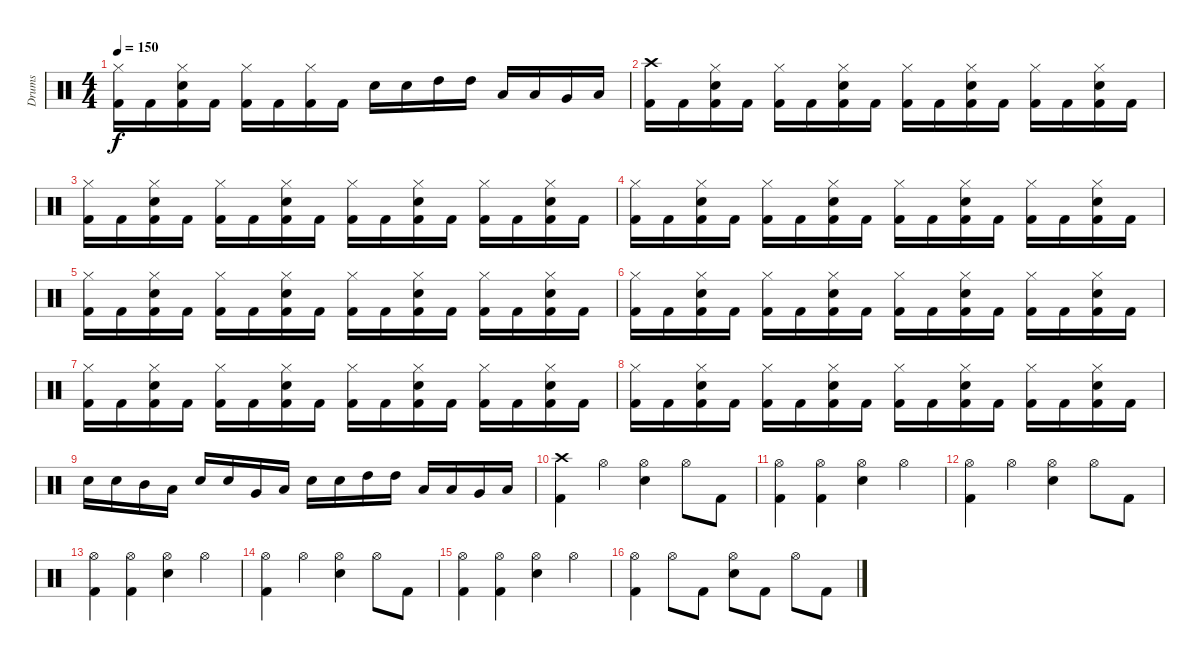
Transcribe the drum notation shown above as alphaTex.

\track ("Drums" "Drums") {instrument percussion}
\staff {score}
\articulation defaults
\ts (4 4)
\tempo 150
\clef neutral
\ks c
("Hi-Hat (closed)" "Kick (hit) 2").16{dy f} "Kick (hit) 2".16 ("Hi-Hat (closed)" "Electric Snare (hit)" "Kick (hit) 2").16 "Kick (hit) 2".16 ("Hi-Hat (closed)" "Kick (hit) 2").16 "Kick (hit) 2".16 ("Hi-Hat (closed)" "Kick (hit) 2").16 "Kick (hit) 2".16 "Electric Snare (hit)".16 "Electric Snare (hit)".16 "High Tom (hit)".16 "High Tom (hit)".16 "Low Tom (hit)".16 "Low Tom (hit)".16 "Very Low Tom (hit)".16 "Low Floor Tom (hit)".16 |
("Crash high (hit)" "Kick (hit) 2").16 "Kick (hit) 2".16 ("Hi-Hat (closed)" "Electric Snare (hit)" "Kick (hit) 2").16 "Kick (hit) 2".16 ("Hi-Hat (closed)" "Kick (hit) 2").16 "Kick (hit) 2".16 ("Hi-Hat (closed)" "Electric Snare (hit)" "Kick (hit) 2").16 "Kick (hit) 2".16 ("Hi-Hat (closed)" "Kick (hit) 2").16 "Kick (hit) 2".16 ("Hi-Hat (closed)" "Electric Snare (hit)" "Kick (hit) 2").16 "Kick (hit) 2".16 ("Hi-Hat (closed)" "Kick (hit) 2").16 "Kick (hit) 2".16 ("Hi-Hat (closed)" "Electric Snare (hit)" "Kick (hit) 2").16 "Kick (hit) 2".16 |
("Hi-Hat (closed)" "Kick (hit) 2").16 "Kick (hit) 2".16 ("Hi-Hat (closed)" "Electric Snare (hit)" "Kick (hit) 2").16 "Kick (hit) 2".16 ("Hi-Hat (closed)" "Kick (hit) 2").16 "Kick (hit) 2".16 ("Hi-Hat (closed)" "Electric Snare (hit)" "Kick (hit) 2").16 "Kick (hit) 2".16 ("Hi-Hat (closed)" "Kick (hit) 2").16 "Kick (hit) 2".16 ("Hi-Hat (closed)" "Electric Snare (hit)" "Kick (hit) 2").16 "Kick (hit) 2".16 ("Hi-Hat (closed)" "Kick (hit) 2").16 "Kick (hit) 2".16 ("Hi-Hat (closed)" "Electric Snare (hit)" "Kick (hit) 2").16 "Kick (hit) 2".16 |
("Hi-Hat (closed)" "Kick (hit) 2").16 "Kick (hit) 2".16 ("Hi-Hat (closed)" "Electric Snare (hit)" "Kick (hit) 2").16 "Kick (hit) 2".16 ("Hi-Hat (closed)" "Kick (hit) 2").16 "Kick (hit) 2".16 ("Hi-Hat (closed)" "Electric Snare (hit)" "Kick (hit) 2").16 "Kick (hit) 2".16 ("Hi-Hat (closed)" "Kick (hit) 2").16 "Kick (hit) 2".16 ("Hi-Hat (closed)" "Electric Snare (hit)" "Kick (hit) 2").16 "Kick (hit) 2".16 ("Hi-Hat (closed)" "Kick (hit) 2").16 "Kick (hit) 2".16 ("Hi-Hat (closed)" "Electric Snare (hit)" "Kick (hit) 2").16 "Kick (hit) 2".16 |
("Hi-Hat (closed)" "Kick (hit) 2").16 "Kick (hit) 2".16 ("Hi-Hat (closed)" "Electric Snare (hit)" "Kick (hit) 2").16 "Kick (hit) 2".16 ("Hi-Hat (closed)" "Kick (hit) 2").16 "Kick (hit) 2".16 ("Hi-Hat (closed)" "Electric Snare (hit)" "Kick (hit) 2").16 "Kick (hit) 2".16 ("Hi-Hat (closed)" "Kick (hit) 2").16 "Kick (hit) 2".16 ("Hi-Hat (closed)" "Electric Snare (hit)" "Kick (hit) 2").16 "Kick (hit) 2".16 ("Hi-Hat (closed)" "Kick (hit) 2").16 "Kick (hit) 2".16 ("Hi-Hat (closed)" "Electric Snare (hit)" "Kick (hit) 2").16 "Kick (hit) 2".16 |
("Hi-Hat (closed)" "Kick (hit) 2").16 "Kick (hit) 2".16 ("Hi-Hat (closed)" "Electric Snare (hit)" "Kick (hit) 2").16 "Kick (hit) 2".16 ("Hi-Hat (closed)" "Kick (hit) 2").16 "Kick (hit) 2".16 ("Hi-Hat (closed)" "Electric Snare (hit)" "Kick (hit) 2").16 "Kick (hit) 2".16 ("Hi-Hat (closed)" "Kick (hit) 2").16 "Kick (hit) 2".16 ("Hi-Hat (closed)" "Electric Snare (hit)" "Kick (hit) 2").16 "Kick (hit) 2".16 ("Hi-Hat (closed)" "Kick (hit) 2").16 "Kick (hit) 2".16 ("Hi-Hat (closed)" "Electric Snare (hit)" "Kick (hit) 2").16 "Kick (hit) 2".16 |
("Hi-Hat (closed)" "Kick (hit) 2").16 "Kick (hit) 2".16 ("Hi-Hat (closed)" "Electric Snare (hit)" "Kick (hit) 2").16 "Kick (hit) 2".16 ("Hi-Hat (closed)" "Kick (hit) 2").16 "Kick (hit) 2".16 ("Hi-Hat (closed)" "Electric Snare (hit)" "Kick (hit) 2").16 "Kick (hit) 2".16 ("Hi-Hat (closed)" "Kick (hit) 2").16 "Kick (hit) 2".16 ("Hi-Hat (closed)" "Electric Snare (hit)" "Kick (hit) 2").16 "Kick (hit) 2".16 ("Hi-Hat (closed)" "Kick (hit) 2").16 "Kick (hit) 2".16 ("Hi-Hat (closed)" "Electric Snare (hit)" "Kick (hit) 2").16 "Kick (hit) 2".16 |
("Hi-Hat (closed)" "Kick (hit) 2").16 "Kick (hit) 2".16 ("Hi-Hat (closed)" "Electric Snare (hit)" "Kick (hit) 2").16 "Kick (hit) 2".16 ("Hi-Hat (closed)" "Kick (hit) 2").16 "Kick (hit) 2".16 ("Hi-Hat (closed)" "Electric Snare (hit)" "Kick (hit) 2").16 "Kick (hit) 2".16 ("Hi-Hat (closed)" "Kick (hit) 2").16 "Kick (hit) 2".16 ("Hi-Hat (closed)" "Electric Snare (hit)" "Kick (hit) 2").16 "Kick (hit) 2".16 ("Hi-Hat (closed)" "Kick (hit) 2").16 "Kick (hit) 2".16 ("Hi-Hat (closed)" "Electric Snare (hit)" "Kick (hit) 2").16 "Kick (hit) 2".16 |
"Electric Snare (hit)".16 "Electric Snare (hit)".16 "Mid Tom (hit)".16 "Low Tom (hit)".16 "Electric Snare (hit)".16 "Electric Snare (hit)".16 "Very Low Tom (hit)".16 "Low Floor Tom (hit)".16 "Electric Snare (hit)".16 "Electric Snare (hit)".16 "High Tom (hit)".16 "High Tom (hit)".16 "Low Tom (hit)".16 "Low Tom (hit)".16 "Very Low Tom (hit)".16 "Low Floor Tom (hit)".16 |
("Crash high (hit)" "Kick (hit) 2").4 "Hi-Hat (open)".4 ("Hi-Hat (open)" "Electric Snare (hit)").4 "Hi-Hat (open)".8 "Kick (hit) 2".8 |
("Hi-Hat (open)" "Kick (hit) 2").4 ("Hi-Hat (open)" "Kick (hit) 2").4 ("Hi-Hat (open)" "Electric Snare (hit)").4 "Hi-Hat (open)".4 |
("Hi-Hat (open)" "Kick (hit) 2").4 "Hi-Hat (open)".4 ("Hi-Hat (open)" "Electric Snare (hit)").4 "Hi-Hat (open)".8 "Kick (hit) 2".8 |
("Hi-Hat (open)" "Kick (hit) 2").4 ("Hi-Hat (open)" "Kick (hit) 2").4 ("Hi-Hat (open)" "Electric Snare (hit)").4 "Hi-Hat (open)".4 |
("Hi-Hat (open)" "Kick (hit) 2").4 "Hi-Hat (open)".4 ("Hi-Hat (open)" "Electric Snare (hit)").4 "Hi-Hat (open)".8 "Kick (hit) 2".8 |
("Hi-Hat (open)" "Kick (hit) 2").4 ("Hi-Hat (open)" "Kick (hit) 2").4 ("Hi-Hat (open)" "Electric Snare (hit)").4 "Hi-Hat (open)".4 |
("Hi-Hat (open)" "Kick (hit) 2").4 "Hi-Hat (open)".8 "Kick (hit) 2".8 ("Hi-Hat (open)" "Electric Snare (hit)").8 "Kick (hit) 2".8 "Hi-Hat (open)".8 "Kick (hit) 2".8
